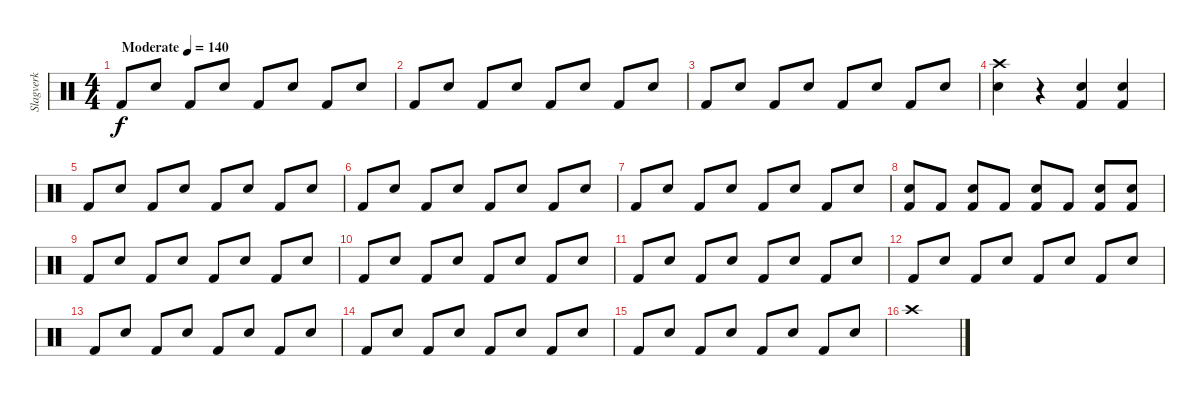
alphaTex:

\track ("Slagverk" "Slagverk") {instrument percussion}
\staff {score}
\articulation defaults
\ts (4 4)
\tempo (140 "Moderate")
\clef neutral
\ks c "Kick (hit) 2".8{dy f} "Snare (hit) 2".8 "Kick (hit) 2".8 "Snare (hit) 2".8 "Kick (hit) 2".8 "Snare (hit) 2".8 "Kick (hit) 2".8 "Snare (hit) 2".8
|
"Kick (hit) 2".8 "Snare (hit) 2".8 "Kick (hit) 2".8 "Snare (hit) 2".8 "Kick (hit) 2".8 "Snare (hit) 2".8 "Kick (hit) 2".8 "Snare (hit) 2".8 |
"Kick (hit) 2".8 "Snare (hit) 2".8 "Kick (hit) 2".8 "Snare (hit) 2".8 "Kick (hit) 2".8 "Snare (hit) 2".8 "Kick (hit) 2".8 "Snare (hit) 2".8 |
("Crash high (hit)" "Electric Snare (hit)").4 r.4 ("Snare (hit) 2" "Kick (hit) 2").4 ("Snare (hit) 2" "Kick (hit) 2").4 |
"Kick (hit) 2".8 "Snare (hit) 2".8 "Kick (hit) 2".8 "Snare (hit) 2".8 "Kick (hit) 2".8 "Snare (hit) 2".8 "Kick (hit) 2".8 "Snare (hit) 2".8 |
"Kick (hit) 2".8 "Snare (hit) 2".8 "Kick (hit) 2".8 "Snare (hit) 2".8 "Kick (hit) 2".8 "Snare (hit) 2".8 "Kick (hit) 2".8 "Snare (hit) 2".8 |
"Kick (hit) 2".8 "Snare (hit) 2".8 "Kick (hit) 2".8 "Snare (hit) 2".8 "Kick (hit) 2".8 "Snare (hit) 2".8 "Kick (hit) 2".8 "Snare (hit) 2".8 |
("Kick (hit) 2" "Electric Snare (hit)").8 "Kick (hit) 2".8 ("Kick (hit) 2" "Snare (hit) 2").8 "Kick (hit) 2".8 ("Kick (hit) 2" "Snare (hit) 2").8 "Kick (hit) 2".8 ("Snare (hit) 2" "Kick (hit) 2").8 ("Snare (hit) 2" "Kick (hit) 2").8 |
"Kick (hit) 2".8 "Snare (hit) 2".8 "Kick (hit) 2".8 "Snare (hit) 2".8 "Kick (hit) 2".8 "Snare (hit) 2".8 "Kick (hit) 2".8 "Snare (hit) 2".8 |
"Kick (hit) 2".8 "Snare (hit) 2".8 "Kick (hit) 2".8 "Snare (hit) 2".8 "Kick (hit) 2".8 "Snare (hit) 2".8 "Kick (hit) 2".8 "Snare (hit) 2".8 |
"Kick (hit) 2".8 "Snare (hit) 2".8 "Kick (hit) 2".8 "Snare (hit) 2".8 "Kick (hit) 2".8 "Snare (hit) 2".8 "Kick (hit) 2".8 "Snare (hit) 2".8 |
"Kick (hit) 2".8 "Snare (hit) 2".8 "Kick (hit) 2".8 "Snare (hit) 2".8 "Kick (hit) 2".8 "Snare (hit) 2".8 "Kick (hit) 2".8 "Snare (hit) 2".8 |
"Kick (hit) 2".8 "Snare (hit) 2".8 "Kick (hit) 2".8 "Snare (hit) 2".8 "Kick (hit) 2".8 "Snare (hit) 2".8 "Kick (hit) 2".8 "Snare (hit) 2".8 |
"Kick (hit) 2".8 "Snare (hit) 2".8 "Kick (hit) 2".8 "Snare (hit) 2".8 "Kick (hit) 2".8 "Snare (hit) 2".8 "Kick (hit) 2".8 "Snare (hit) 2".8 |
"Kick (hit) 2".8 "Snare (hit) 2".8 "Kick (hit) 2".8 "Snare (hit) 2".8 "Kick (hit) 2".8 "Snare (hit) 2".8 "Kick (hit) 2".8 "Snare (hit) 2".8 |
"Crash high (hit)".1
